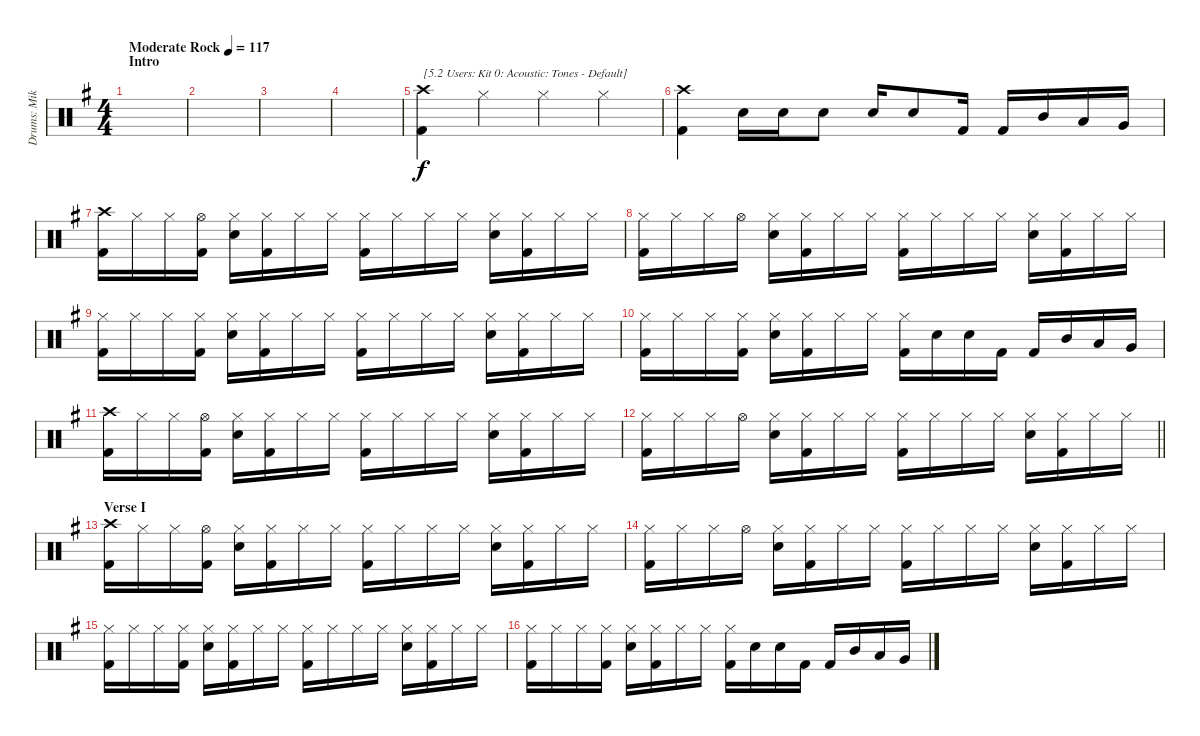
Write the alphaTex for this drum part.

\track ("Drums: Mike" "Drums: Mik") {instrument percussion}
\staff {score}
\articulation defaults
\ts (4 4)
\section ("" "Intro")
\tempo (117 "Moderate Rock")
\clef neutral
\ks g
|
|
|
|
("Crash high (hit)" "Kick (hit) 2").4{txt "[5.2 Users: Kit 0: Acoustic: Tones - Default]"} "Hi-Hat (closed)".4 "Hi-Hat (closed)".4 "Hi-Hat (closed)".4 |
("Crash high (hit)" "Kick (hit) 2").4 "Electric Snare (hit)".16 "Electric Snare (hit)".16 "Electric Snare (hit)".8 "Electric Snare (hit)".16 "Electric Snare (hit)".8 "Kick (hit) 2".16 "Kick (hit) 2".16 "Mid Tom (hit)".16 "Low Tom (hit)".16 "Very Low Tom (hit)".16 |
("Crash high (hit)" "Kick (hit) 2").16 "Hi-Hat (closed)".16 "Hi-Hat (closed)".16 ("Hi-Hat (open)" "Kick (hit) 2").16 ("Hi-Hat (closed)" "Electric Snare (hit)").16 ("Hi-Hat (closed)" "Kick (hit) 2").16 "Hi-Hat (closed)".16 "Hi-Hat (closed)".16 ("Hi-Hat (closed)" "Kick (hit) 2").16 "Hi-Hat (closed)".16 "Hi-Hat (closed)".16 "Hi-Hat (closed)".16 ("Hi-Hat (closed)" "Electric Snare (hit)").16 ("Hi-Hat (closed)" "Kick (hit) 2").16 "Hi-Hat (closed)".16 "Hi-Hat (closed)".16 |
("Hi-Hat (closed)" "Kick (hit) 2").16 "Hi-Hat (closed)".16 "Hi-Hat (closed)".16 "Hi-Hat (open)".16 ("Hi-Hat (closed)" "Electric Snare (hit)").16 ("Hi-Hat (closed)" "Kick (hit) 2").16 "Hi-Hat (closed)".16 "Hi-Hat (closed)".16 ("Hi-Hat (closed)" "Kick (hit) 2").16 "Hi-Hat (closed)".16 "Hi-Hat (closed)".16 "Hi-Hat (closed)".16 ("Hi-Hat (closed)" "Electric Snare (hit)").16 ("Hi-Hat (closed)" "Kick (hit) 2").16 "Hi-Hat (closed)".16 "Hi-Hat (closed)".16 |
("Hi-Hat (closed)" "Kick (hit) 2").16 "Hi-Hat (closed)".16 "Hi-Hat (closed)".16 ("Hi-Hat (closed)" "Kick (hit) 2").16 ("Hi-Hat (closed)" "Electric Snare (hit)").16 ("Hi-Hat (closed)" "Kick (hit) 2").16 "Hi-Hat (closed)".16 "Hi-Hat (closed)".16 ("Hi-Hat (closed)" "Kick (hit) 2").16 "Hi-Hat (closed)".16 "Hi-Hat (closed)".16 "Hi-Hat (closed)".16 ("Hi-Hat (closed)" "Electric Snare (hit)").16 ("Hi-Hat (closed)" "Kick (hit) 2").16 "Hi-Hat (closed)".16 "Hi-Hat (closed)".16 |
("Hi-Hat (closed)" "Kick (hit) 2").16 "Hi-Hat (closed)".16 "Hi-Hat (closed)".16 ("Hi-Hat (closed)" "Kick (hit) 2").16 ("Hi-Hat (closed)" "Electric Snare (hit)").16 ("Hi-Hat (closed)" "Kick (hit) 2").16 "Hi-Hat (closed)".16 "Hi-Hat (closed)".16 ("Hi-Hat (closed)" "Kick (hit) 2").16 "Electric Snare (hit)".16 "Electric Snare (hit)".16 "Kick (hit) 2".16 "Kick (hit) 2".16 "Mid Tom (hit)".16 "Low Tom (hit)".16 "Very Low Tom (hit)".16 |
("Crash high (hit)" "Kick (hit) 2").16 "Hi-Hat (closed)".16 "Hi-Hat (closed)".16 ("Hi-Hat (open)" "Kick (hit) 2").16 ("Hi-Hat (closed)" "Electric Snare (hit)").16 ("Hi-Hat (closed)" "Kick (hit) 2").16 "Hi-Hat (closed)".16 "Hi-Hat (closed)".16 ("Hi-Hat (closed)" "Kick (hit) 2").16 "Hi-Hat (closed)".16 "Hi-Hat (closed)".16 "Hi-Hat (closed)".16 ("Hi-Hat (closed)" "Electric Snare (hit)").16 ("Hi-Hat (closed)" "Kick (hit) 2").16 "Hi-Hat (closed)".16 "Hi-Hat (closed)".16 |
\barLineRight lightlight
("Hi-Hat (closed)" "Kick (hit) 2").16 "Hi-Hat (closed)".16 "Hi-Hat (closed)".16 "Hi-Hat (open)".16 ("Hi-Hat (closed)" "Electric Snare (hit)").16 ("Hi-Hat (closed)" "Kick (hit) 2").16 "Hi-Hat (closed)".16 "Hi-Hat (closed)".16 ("Hi-Hat (closed)" "Kick (hit) 2").16 "Hi-Hat (closed)".16 "Hi-Hat (closed)".16 "Hi-Hat (closed)".16 ("Hi-Hat (closed)" "Electric Snare (hit)").16 ("Hi-Hat (closed)" "Kick (hit) 2").16 "Hi-Hat (closed)".16 "Hi-Hat (closed)".16 |
\section ("" "Verse I")
("Crash high (hit)" "Kick (hit) 2").16 "Hi-Hat (closed)".16 "Hi-Hat (closed)".16 ("Hi-Hat (open)" "Kick (hit) 2").16 ("Hi-Hat (closed)" "Electric Snare (hit)").16 ("Hi-Hat (closed)" "Kick (hit) 2").16 "Hi-Hat (closed)".16 "Hi-Hat (closed)".16 ("Hi-Hat (closed)" "Kick (hit) 2").16 "Hi-Hat (closed)".16 "Hi-Hat (closed)".16 "Hi-Hat (closed)".16 ("Hi-Hat (closed)" "Electric Snare (hit)").16 ("Hi-Hat (closed)" "Kick (hit) 2").16 "Hi-Hat (closed)".16 "Hi-Hat (closed)".16 |
("Hi-Hat (closed)" "Kick (hit) 2").16 "Hi-Hat (closed)".16 "Hi-Hat (closed)".16 "Hi-Hat (open)".16 ("Hi-Hat (closed)" "Electric Snare (hit)").16 ("Hi-Hat (closed)" "Kick (hit) 2").16 "Hi-Hat (closed)".16 "Hi-Hat (closed)".16 ("Hi-Hat (closed)" "Kick (hit) 2").16 "Hi-Hat (closed)".16 "Hi-Hat (closed)".16 "Hi-Hat (closed)".16 ("Hi-Hat (closed)" "Electric Snare (hit)").16 ("Hi-Hat (closed)" "Kick (hit) 2").16 "Hi-Hat (closed)".16 "Hi-Hat (closed)".16 |
("Hi-Hat (closed)" "Kick (hit) 2").16 "Hi-Hat (closed)".16 "Hi-Hat (closed)".16 ("Hi-Hat (closed)" "Kick (hit) 2").16 ("Hi-Hat (closed)" "Electric Snare (hit)").16 ("Hi-Hat (closed)" "Kick (hit) 2").16 "Hi-Hat (closed)".16 "Hi-Hat (closed)".16 ("Hi-Hat (closed)" "Kick (hit) 2").16 "Hi-Hat (closed)".16 "Hi-Hat (closed)".16 "Hi-Hat (closed)".16 ("Hi-Hat (closed)" "Electric Snare (hit)").16 ("Hi-Hat (closed)" "Kick (hit) 2").16 "Hi-Hat (closed)".16 "Hi-Hat (closed)".16 |
("Hi-Hat (closed)" "Kick (hit) 2").16 "Hi-Hat (closed)".16 "Hi-Hat (closed)".16 ("Hi-Hat (closed)" "Kick (hit) 2").16 ("Hi-Hat (closed)" "Electric Snare (hit)").16 ("Hi-Hat (closed)" "Kick (hit) 2").16 "Hi-Hat (closed)".16 "Hi-Hat (closed)".16 ("Hi-Hat (closed)" "Kick (hit) 2").16 "Electric Snare (hit)".16 "Electric Snare (hit)".16 "Kick (hit) 2".16 "Kick (hit) 2".16 "Mid Tom (hit)".16 "Low Tom (hit)".16 "Very Low Tom (hit)".16
